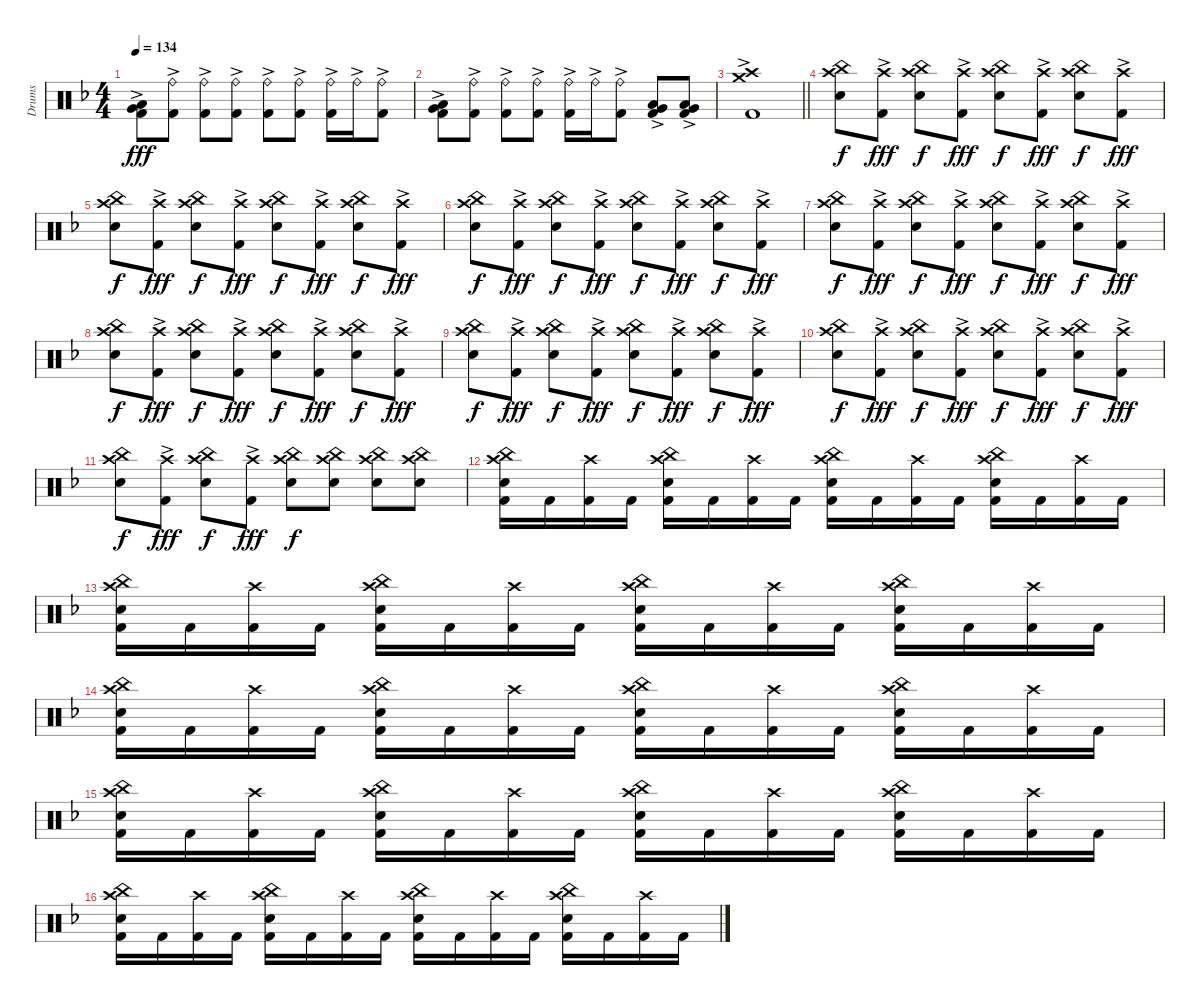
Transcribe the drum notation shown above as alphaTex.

\track ("Drums" "Drums") {instrument percussion}
\staff {score}
\articulation defaults
\ts (4 4)
\tempo 134
\clef neutral
\ks dminor
("Very Low Tom (hit)"{ac} "Low Floor Tom (hit)"{ac} "Kick (hit) 2"{ac}).8{dy fff} ("Ride (bell)" "Kick (hit) 2"{ac}).8 ("Ride (bell)" "Kick (hit) 2"{ac}).8 ("Ride (bell)" "Kick (hit) 2"{ac}).8 ("Ride (bell)" "Kick (hit) 2"{ac}).8 ("Ride (bell)" "Kick (hit) 2"{ac}).8 ("Ride (bell)"{ac} "Kick (hit) 2"{ac}).16 "Ride (bell)"{ac}.16 ("Ride (bell)"{ac} "Kick (hit) 2"{ac}).8 |
("Very Low Tom (hit)"{ac} "Low Floor Tom (hit)"{ac} "Kick (hit) 2"{ac}).8 ("Ride (bell)" "Kick (hit) 2"{ac}).8 ("Ride (bell)" "Kick (hit) 2"{ac}).8 ("Ride (bell)" "Kick (hit) 2"{ac}).8 ("Ride (bell)"{ac} "Kick (hit) 2"{ac}).16 "Ride (bell)"{ac}.16 ("Ride (bell)"{ac} "Kick (hit) 2"{ac}).8 ("Low Floor Tom (hit)" "Very Low Tom (hit)" "Kick (hit) 2"{ac}).8 ("Low Floor Tom (hit)" "Very Low Tom (hit)" "Kick (hit) 2"{ac}).8 |
\barLineRight lightlight
("Crash high (hit)" "Crash medium (hit)" "Kick (hit) 2"{ac}).1 |
("Crash high (hit)" "China (hit)" "Snare (hit) 2").8{dy f} ("Crash high (hit)" "Kick (hit) 2"{ac}).8{dy fff} ("Crash high (hit)" "China (hit)" "Snare (hit) 2").8{dy f} ("Crash high (hit)" "Kick (hit) 2"{ac}).8{dy fff} ("Crash high (hit)" "China (hit)" "Snare (hit) 2").8{dy f} ("Crash high (hit)" "Kick (hit) 2"{ac}).8{dy fff} ("Crash high (hit)" "China (hit)" "Snare (hit) 2").8{dy f} ("Crash high (hit)" "Kick (hit) 2"{ac}).8{dy fff} |
("Crash high (hit)" "China (hit)" "Snare (hit) 2").8{dy f} ("Crash high (hit)" "Kick (hit) 2"{ac}).8{dy fff} ("Crash high (hit)" "China (hit)" "Snare (hit) 2").8{dy f} ("Crash high (hit)" "Kick (hit) 2"{ac}).8{dy fff} ("Crash high (hit)" "China (hit)" "Snare (hit) 2").8{dy f} ("Crash high (hit)" "Kick (hit) 2"{ac}).8{dy fff} ("Crash high (hit)" "China (hit)" "Snare (hit) 2").8{dy f} ("Crash high (hit)" "Kick (hit) 2"{ac}).8{dy fff} |
("Crash high (hit)" "China (hit)" "Snare (hit) 2").8{dy f} ("Crash high (hit)" "Kick (hit) 2"{ac}).8{dy fff} ("Crash high (hit)" "China (hit)" "Snare (hit) 2").8{dy f} ("Crash high (hit)" "Kick (hit) 2"{ac}).8{dy fff} ("Crash high (hit)" "China (hit)" "Snare (hit) 2").8{dy f} ("Crash high (hit)" "Kick (hit) 2"{ac}).8{dy fff} ("Crash high (hit)" "China (hit)" "Snare (hit) 2").8{dy f} ("Crash high (hit)" "Kick (hit) 2"{ac}).8{dy fff} |
("Crash high (hit)" "China (hit)" "Snare (hit) 2").8{dy f} ("Crash high (hit)" "Kick (hit) 2"{ac}).8{dy fff} ("Crash high (hit)" "China (hit)" "Snare (hit) 2").8{dy f} ("Crash high (hit)" "Kick (hit) 2"{ac}).8{dy fff} ("Crash high (hit)" "China (hit)" "Snare (hit) 2").8{dy f} ("Crash high (hit)" "Kick (hit) 2"{ac}).8{dy fff} ("Crash high (hit)" "China (hit)" "Snare (hit) 2").8{dy f} ("Crash high (hit)" "Kick (hit) 2"{ac}).8{dy fff} |
("Crash high (hit)" "China (hit)" "Snare (hit) 2").8{dy f} ("Crash high (hit)" "Kick (hit) 2"{ac}).8{dy fff} ("Crash high (hit)" "China (hit)" "Snare (hit) 2").8{dy f} ("Crash high (hit)" "Kick (hit) 2"{ac}).8{dy fff} ("Crash high (hit)" "China (hit)" "Snare (hit) 2").8{dy f} ("Crash high (hit)" "Kick (hit) 2"{ac}).8{dy fff} ("Crash high (hit)" "China (hit)" "Snare (hit) 2").8{dy f} ("Crash high (hit)" "Kick (hit) 2"{ac}).8{dy fff} |
("Crash high (hit)" "China (hit)" "Snare (hit) 2").8{dy f} ("Crash high (hit)" "Kick (hit) 2"{ac}).8{dy fff} ("Crash high (hit)" "China (hit)" "Snare (hit) 2").8{dy f} ("Crash high (hit)" "Kick (hit) 2"{ac}).8{dy fff} ("Crash high (hit)" "China (hit)" "Snare (hit) 2").8{dy f} ("Crash high (hit)" "Kick (hit) 2"{ac}).8{dy fff} ("Crash high (hit)" "China (hit)" "Snare (hit) 2").8{dy f} ("Crash high (hit)" "Kick (hit) 2"{ac}).8{dy fff} |
("Crash high (hit)" "China (hit)" "Snare (hit) 2").8{dy f} ("Crash high (hit)" "Kick (hit) 2"{ac}).8{dy fff} ("Crash high (hit)" "China (hit)" "Snare (hit) 2").8{dy f} ("Crash high (hit)" "Kick (hit) 2"{ac}).8{dy fff} ("Crash high (hit)" "China (hit)" "Snare (hit) 2").8{dy f} ("Crash high (hit)" "Kick (hit) 2"{ac}).8{dy fff} ("Crash high (hit)" "China (hit)" "Snare (hit) 2").8{dy f} ("Crash high (hit)" "Kick (hit) 2"{ac}).8{dy fff} |
("Crash high (hit)" "China (hit)" "Snare (hit) 2").8{dy f} ("Crash high (hit)" "Kick (hit) 2"{ac}).8{dy fff} ("Crash high (hit)" "China (hit)" "Snare (hit) 2").8{dy f} ("Crash high (hit)" "Kick (hit) 2"{ac}).8{dy fff} ("Crash high (hit)" "China (hit)" "Snare (hit) 2").8{dy f} ("Crash high (hit)" "China (hit)" "Snare (hit) 2").8 ("Crash high (hit)" "China (hit)" "Snare (hit) 2").8 ("Crash high (hit)" "China (hit)" "Snare (hit) 2").8 |
("Crash high (hit)" "China (hit)" "Snare (hit) 2" "Kick (hit) 2").16 "Kick (hit) 2".16 ("Crash high (hit)" "Kick (hit) 2").16 "Kick (hit) 2".16 ("Crash high (hit)" "China (hit)" "Snare (hit) 2" "Kick (hit) 2").16 "Kick (hit) 2".16 ("Crash high (hit)" "Kick (hit) 2").16 "Kick (hit) 2".16 ("Crash high (hit)" "China (hit)" "Snare (hit) 2" "Kick (hit) 2").16 "Kick (hit) 2".16 ("Crash high (hit)" "Kick (hit) 2").16 "Kick (hit) 2".16 ("Crash high (hit)" "China (hit)" "Snare (hit) 2" "Kick (hit) 2").16 "Kick (hit) 2".16 ("Crash high (hit)" "Kick (hit) 2").16 "Kick (hit) 2".16 |
("Crash high (hit)" "China (hit)" "Snare (hit) 2" "Kick (hit) 2").16 "Kick (hit) 2".16 ("Crash high (hit)" "Kick (hit) 2").16 "Kick (hit) 2".16 ("Crash high (hit)" "China (hit)" "Snare (hit) 2" "Kick (hit) 2").16 "Kick (hit) 2".16 ("Crash high (hit)" "Kick (hit) 2").16 "Kick (hit) 2".16 ("Crash high (hit)" "China (hit)" "Snare (hit) 2" "Kick (hit) 2").16 "Kick (hit) 2".16 ("Crash high (hit)" "Kick (hit) 2").16 "Kick (hit) 2".16 ("Crash high (hit)" "China (hit)" "Snare (hit) 2" "Kick (hit) 2").16 "Kick (hit) 2".16 ("Crash high (hit)" "Kick (hit) 2").16 "Kick (hit) 2".16 |
("Crash high (hit)" "China (hit)" "Snare (hit) 2" "Kick (hit) 2").16 "Kick (hit) 2".16 ("Crash high (hit)" "Kick (hit) 2").16 "Kick (hit) 2".16 ("Crash high (hit)" "China (hit)" "Snare (hit) 2" "Kick (hit) 2").16 "Kick (hit) 2".16 ("Crash high (hit)" "Kick (hit) 2").16 "Kick (hit) 2".16 ("Crash high (hit)" "China (hit)" "Snare (hit) 2" "Kick (hit) 2").16 "Kick (hit) 2".16 ("Crash high (hit)" "Kick (hit) 2").16 "Kick (hit) 2".16 ("Crash high (hit)" "China (hit)" "Snare (hit) 2" "Kick (hit) 2").16 "Kick (hit) 2".16 ("Crash high (hit)" "Kick (hit) 2").16 "Kick (hit) 2".16 |
("Crash high (hit)" "China (hit)" "Snare (hit) 2" "Kick (hit) 2").16 "Kick (hit) 2".16 ("Crash high (hit)" "Kick (hit) 2").16 "Kick (hit) 2".16 ("Crash high (hit)" "China (hit)" "Snare (hit) 2" "Kick (hit) 2").16 "Kick (hit) 2".16 ("Crash high (hit)" "Kick (hit) 2").16 "Kick (hit) 2".16 ("Crash high (hit)" "China (hit)" "Snare (hit) 2" "Kick (hit) 2").16 "Kick (hit) 2".16 ("Crash high (hit)" "Kick (hit) 2").16 "Kick (hit) 2".16 ("Crash high (hit)" "China (hit)" "Snare (hit) 2" "Kick (hit) 2").16 "Kick (hit) 2".16 ("Crash high (hit)" "Kick (hit) 2").16 "Kick (hit) 2".16 |
("Crash high (hit)" "China (hit)" "Snare (hit) 2" "Kick (hit) 2").16 "Kick (hit) 2".16 ("Crash high (hit)" "Kick (hit) 2").16 "Kick (hit) 2".16 ("Crash high (hit)" "China (hit)" "Snare (hit) 2" "Kick (hit) 2").16 "Kick (hit) 2".16 ("Crash high (hit)" "Kick (hit) 2").16 "Kick (hit) 2".16 ("Crash high (hit)" "China (hit)" "Snare (hit) 2" "Kick (hit) 2").16 "Kick (hit) 2".16 ("Crash high (hit)" "Kick (hit) 2").16 "Kick (hit) 2".16 ("Crash high (hit)" "China (hit)" "Snare (hit) 2" "Kick (hit) 2").16 "Kick (hit) 2".16 ("Crash high (hit)" "Kick (hit) 2").16 "Kick (hit) 2".16
